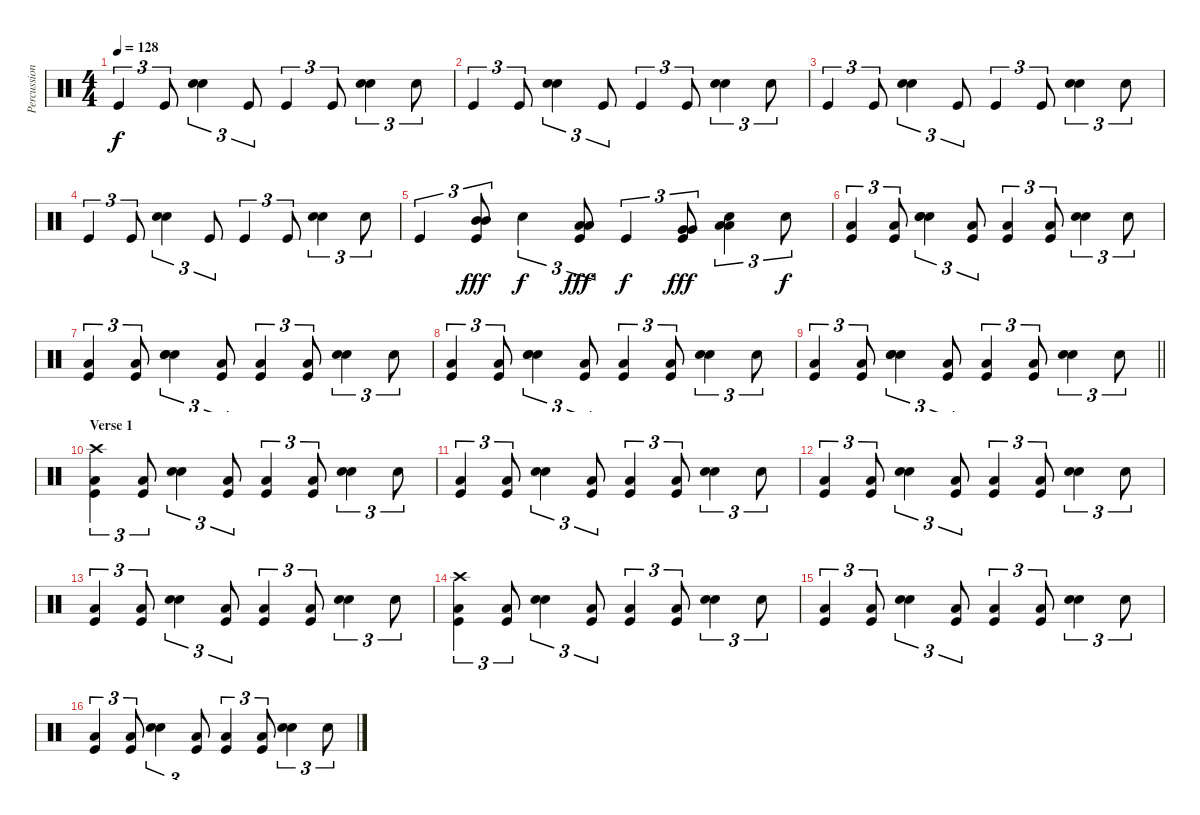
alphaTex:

\track ("Percussion" "Percussion") {instrument percussion}
\staff {score}
\articulation defaults
\ts (4 4)
\tempo 128
\clef neutral
\ks c "Kick (hit)".4{tu (3 2) dy f} "Kick (hit)".8{tu (3 2)}
("Hand Clap (hit)" "Electric Snare (hit)").4{tu (3 2)} "Kick (hit)".8{tu (3 2)} "Kick (hit)".4{tu (3 2)} "Kick (hit)".8{tu (3 2)} ("Hand Clap (hit)" "Electric Snare (hit)").4{tu (3 2)} "Hand Clap (hit)".8{tu (3 2)} |
"Kick (hit)".4{tu (3 2)} "Kick (hit)".8{tu (3 2)} ("Hand Clap (hit)" "Electric Snare (hit)").4{tu (3 2)} "Kick (hit)".8{tu (3 2)} "Kick (hit)".4{tu (3 2)} "Kick (hit)".8{tu (3 2)} ("Hand Clap (hit)" "Electric Snare (hit)").4{tu (3 2)} "Hand Clap (hit)".8{tu (3 2)} |
"Kick (hit)".4{tu (3 2)} "Kick (hit)".8{tu (3 2)} ("Hand Clap (hit)" "Electric Snare (hit)").4{tu (3 2)} "Kick (hit)".8{tu (3 2)} "Kick (hit)".4{tu (3 2)} "Kick (hit)".8{tu (3 2)} ("Hand Clap (hit)" "Electric Snare (hit)").4{tu (3 2)} "Hand Clap (hit)".8{tu (3 2)} |
"Kick (hit)".4{tu (3 2)} "Kick (hit)".8{tu (3 2)} ("Hand Clap (hit)" "Electric Snare (hit)").4{tu (3 2)} "Kick (hit)".8{tu (3 2)} "Kick (hit)".4{tu (3 2)} "Kick (hit)".8{tu (3 2)} ("Hand Clap (hit)" "Electric Snare (hit)").4{tu (3 2)} "Hand Clap (hit)".8{tu (3 2)} |
"Kick (hit)".4{tu (3 2)} ("Mid Tom (hit)" "Mid Tom (hit)" "Kick (hit)").8{tu (3 2) dy fff} "Hand Clap (hit)".4{tu (3 2) dy f} ("Low Tom (hit)" "Low Tom (hit)" "Kick (hit)").8{tu (3 2) dy fff} "Kick (hit)".4{tu (3 2) dy f} ("Very Low Tom (hit)" "Very Low Tom (hit)" "Kick (hit)").8{tu (3 2) dy fff} ("Hand Clap (hit)" "Low Floor Tom (hit)" "Low Floor Tom (hit)").4{tu (3 2)} "Hand Clap (hit)".8{tu (3 2) dy f} |
("Low Floor Tom (hit)" "Kick (hit)").4{tu (3 2)} ("Low Floor Tom (hit)" "Kick (hit)").8{tu (3 2)} ("Hand Clap (hit)" "Electric Snare (hit)" "Snare (hit) 2").4{tu (3 2)} ("Low Floor Tom (hit)" "Kick (hit)").8{tu (3 2)} ("Low Floor Tom (hit)" "Kick (hit)").4{tu (3 2)} ("Low Floor Tom (hit)" "Kick (hit)").8{tu (3 2)} ("Hand Clap (hit)" "Electric Snare (hit)").4{tu (3 2)} "Hand Clap (hit)".8{tu (3 2)} |
("Low Floor Tom (hit)" "Kick (hit)").4{tu (3 2)} ("Low Floor Tom (hit)" "Kick (hit)").8{tu (3 2)} ("Hand Clap (hit)" "Electric Snare (hit)" "Snare (hit) 2").4{tu (3 2)} ("Low Floor Tom (hit)" "Kick (hit)").8{tu (3 2)} ("Low Floor Tom (hit)" "Kick (hit)").4{tu (3 2)} ("Low Floor Tom (hit)" "Kick (hit)").8{tu (3 2)} ("Hand Clap (hit)" "Electric Snare (hit)").4{tu (3 2)} "Hand Clap (hit)".8{tu (3 2)} |
("Low Floor Tom (hit)" "Kick (hit)").4{tu (3 2)} ("Low Floor Tom (hit)" "Kick (hit)").8{tu (3 2)} ("Hand Clap (hit)" "Electric Snare (hit)" "Snare (hit) 2").4{tu (3 2)} ("Low Floor Tom (hit)" "Kick (hit)").8{tu (3 2)} ("Low Floor Tom (hit)" "Kick (hit)").4{tu (3 2)} ("Low Floor Tom (hit)" "Kick (hit)").8{tu (3 2)} ("Hand Clap (hit)" "Electric Snare (hit)").4{tu (3 2)} "Hand Clap (hit)".8{tu (3 2)} |
\barLineRight lightlight
("Low Floor Tom (hit)" "Kick (hit)").4{tu (3 2)} ("Low Floor Tom (hit)" "Kick (hit)").8{tu (3 2)} ("Hand Clap (hit)" "Electric Snare (hit)" "Snare (hit) 2").4{tu (3 2)} ("Low Floor Tom (hit)" "Kick (hit)").8{tu (3 2)} ("Low Floor Tom (hit)" "Kick (hit)").4{tu (3 2)} ("Low Floor Tom (hit)" "Kick (hit)").8{tu (3 2)} ("Hand Clap (hit)" "Electric Snare (hit)").4{tu (3 2)} "Hand Clap (hit)".8{tu (3 2)} |
\section ("" "Verse 1")
("Crash high (hit)" "Low Floor Tom (hit)" "Kick (hit)").4{tu (3 2)} ("Low Floor Tom (hit)" "Kick (hit)").8{tu (3 2)} ("Hand Clap (hit)" "Electric Snare (hit)").4{tu (3 2)} ("Low Floor Tom (hit)" "Kick (hit)").8{tu (3 2)} ("Low Floor Tom (hit)" "Kick (hit)").4{tu (3 2)} ("Low Floor Tom (hit)" "Kick (hit)").8{tu (3 2)} ("Hand Clap (hit)" "Electric Snare (hit)").4{tu (3 2)} "Hand Clap (hit)".8{tu (3 2)} |
("Low Floor Tom (hit)" "Kick (hit)").4{tu (3 2)} ("Low Floor Tom (hit)" "Kick (hit)").8{tu (3 2)} ("Hand Clap (hit)" "Electric Snare (hit)").4{tu (3 2)} ("Low Floor Tom (hit)" "Kick (hit)").8{tu (3 2)} ("Low Floor Tom (hit)" "Kick (hit)").4{tu (3 2)} ("Low Floor Tom (hit)" "Kick (hit)").8{tu (3 2)} ("Hand Clap (hit)" "Electric Snare (hit)").4{tu (3 2)} "Hand Clap (hit)".8{tu (3 2)} |
("Low Floor Tom (hit)" "Kick (hit)").4{tu (3 2)} ("Low Floor Tom (hit)" "Kick (hit)").8{tu (3 2)} ("Hand Clap (hit)" "Electric Snare (hit)").4{tu (3 2)} ("Low Floor Tom (hit)" "Kick (hit)").8{tu (3 2)} ("Low Floor Tom (hit)" "Kick (hit)").4{tu (3 2)} ("Low Floor Tom (hit)" "Kick (hit)").8{tu (3 2)} ("Hand Clap (hit)" "Electric Snare (hit)").4{tu (3 2)} "Hand Clap (hit)".8{tu (3 2)} |
("Low Floor Tom (hit)" "Kick (hit)").4{tu (3 2)} ("Low Floor Tom (hit)" "Kick (hit)").8{tu (3 2)} ("Hand Clap (hit)" "Electric Snare (hit)").4{tu (3 2)} ("Low Floor Tom (hit)" "Kick (hit)").8{tu (3 2)} ("Low Floor Tom (hit)" "Kick (hit)").4{tu (3 2)} ("Low Floor Tom (hit)" "Kick (hit)").8{tu (3 2)} ("Hand Clap (hit)" "Electric Snare (hit)").4{tu (3 2)} "Hand Clap (hit)".8{tu (3 2)} |
("Crash high (hit)" "Low Floor Tom (hit)" "Kick (hit)").4{tu (3 2)} ("Low Floor Tom (hit)" "Kick (hit)").8{tu (3 2)} ("Hand Clap (hit)" "Electric Snare (hit)").4{tu (3 2)} ("Low Floor Tom (hit)" "Kick (hit)").8{tu (3 2)} ("Low Floor Tom (hit)" "Kick (hit)").4{tu (3 2)} ("Low Floor Tom (hit)" "Kick (hit)").8{tu (3 2)} ("Hand Clap (hit)" "Electric Snare (hit)").4{tu (3 2)} "Hand Clap (hit)".8{tu (3 2)} |
("Low Floor Tom (hit)" "Kick (hit)").4{tu (3 2)} ("Low Floor Tom (hit)" "Kick (hit)").8{tu (3 2)} ("Hand Clap (hit)" "Electric Snare (hit)").4{tu (3 2)} ("Low Floor Tom (hit)" "Kick (hit)").8{tu (3 2)} ("Low Floor Tom (hit)" "Kick (hit)").4{tu (3 2)} ("Low Floor Tom (hit)" "Kick (hit)").8{tu (3 2)} ("Hand Clap (hit)" "Electric Snare (hit)").4{tu (3 2)} "Hand Clap (hit)".8{tu (3 2)} |
("Low Floor Tom (hit)" "Kick (hit)").4{tu (3 2)} ("Low Floor Tom (hit)" "Kick (hit)").8{tu (3 2)} ("Hand Clap (hit)" "Electric Snare (hit)").4{tu (3 2)} ("Low Floor Tom (hit)" "Kick (hit)").8{tu (3 2)} ("Low Floor Tom (hit)" "Kick (hit)").4{tu (3 2)} ("Low Floor Tom (hit)" "Kick (hit)").8{tu (3 2)} ("Hand Clap (hit)" "Electric Snare (hit)").4{tu (3 2)} "Hand Clap (hit)".8{tu (3 2)}
